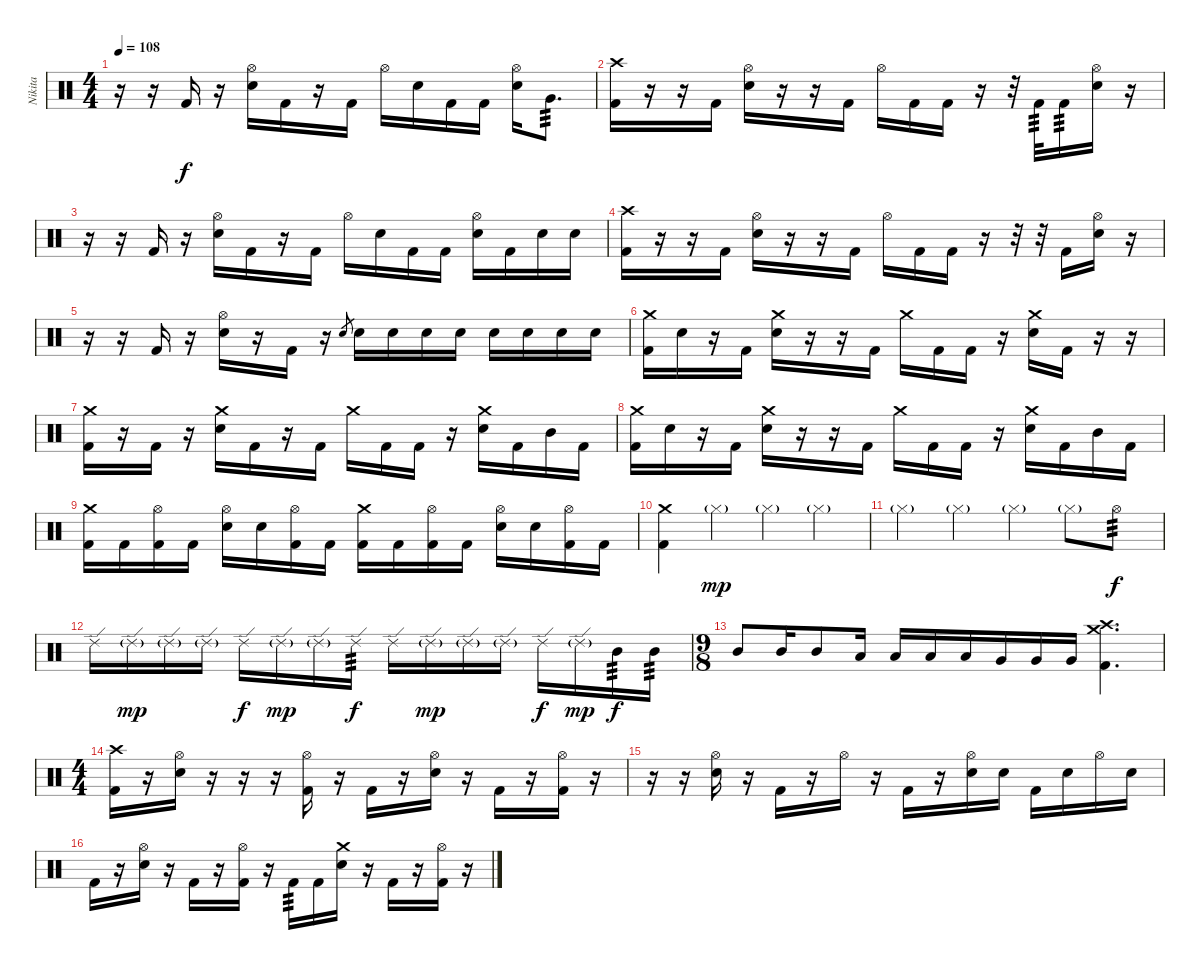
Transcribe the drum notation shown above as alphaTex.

\track ("Nikita" "Nikita") {instrument percussion}
\staff {score}
\articulation defaults
\ts (4 4)
\tempo 108
\clef neutral
\ks c
r.16{dy f} r.16 "Kick (hit) 2".16 r.16 ("Hi-Hat (open)" "Electric Snare (hit)").16 "Kick (hit) 2".16 r.16 "Kick (hit) 2".16 "Hi-Hat (open)".16 "Electric Snare (hit)".16 "Kick (hit) 2".16 "Kick (hit) 2".16 ("Hi-Hat (open)" "Electric Snare (hit)").16 "Very Low Tom (hit)".8{d tp 3} |
("Crash high (hit)" "Kick (hit) 2").16 r.16 r.16 "Kick (hit) 2".16 ("Hi-Hat (open)" "Electric Snare (hit)").16 r.16 r.16 "Kick (hit) 2".16 "Hi-Hat (open)".16 "Kick (hit) 2".16 "Kick (hit) 2".16 r.16 r.32 "Kick (hit) 2".32{tp 3} "Kick (hit) 2".16{tp 3} ("Hi-Hat (open)" "Electric Snare (hit)").16 r.16 |
r.16 r.16 "Kick (hit) 2".16 r.16 ("Hi-Hat (open)" "Electric Snare (hit)").16 "Kick (hit) 2".16 r.16 "Kick (hit) 2".16 "Hi-Hat (open)".16 "Electric Snare (hit)".16 "Kick (hit) 2".16 "Kick (hit) 2".16 ("Hi-Hat (open)" "Electric Snare (hit)").16 "Kick (hit) 2".16 "Electric Snare (hit)".16 "Electric Snare (hit)".16 |
("Crash high (hit)" "Kick (hit) 2").16 r.16 r.16 "Kick (hit) 2".16 ("Hi-Hat (open)" "Electric Snare (hit)").16 r.16 r.16 "Kick (hit) 2".16 "Hi-Hat (open)".16 "Kick (hit) 2".16 "Kick (hit) 2".16 r.16 r.32 r.32 "Kick (hit) 2".16 ("Hi-Hat (open)" "Electric Snare (hit)").16 r.16 |
r.16 r.16 "Kick (hit) 2".16 r.16 ("Hi-Hat (open)" "Electric Snare (hit)").16 r.16 "Kick (hit) 2".16 r.16 "Electric Snare (hit)".8{gr} "Electric Snare (hit)".16 "Electric Snare (hit)".16 "Electric Snare (hit)".16 "Electric Snare (hit)".16 "Electric Snare (hit)".16 "Electric Snare (hit)".16 "Electric Snare (hit)".16 "Electric Snare (hit)".16 |
("Crash medium (hit)" "Kick (hit) 2").16 "Electric Snare (hit)".16 r.16 "Kick (hit) 2".16 ("Crash medium (hit)" "Electric Snare (hit)").16 r.16 r.16 "Kick (hit) 2".16 "Crash medium (hit)".16 "Kick (hit) 2".16 "Kick (hit) 2".16 r.16 ("Crash medium (hit)" "Electric Snare (hit)").16 "Kick (hit) 2".16 r.16 r.16 |
("Crash medium (hit)" "Kick (hit) 2").16 r.16 "Kick (hit) 2".16 r.16 ("Crash medium (hit)" "Electric Snare (hit)").16 "Kick (hit) 2".16 r.16 "Kick (hit) 2".16 "Crash medium (hit)".16 "Kick (hit) 2".16 "Kick (hit) 2".16 r.16 ("Crash medium (hit)" "Electric Snare (hit)").16 "Kick (hit) 2".16 "Mid Tom (hit)".16 "Kick (hit) 2".16 |
("Crash medium (hit)" "Kick (hit) 2").16 "Electric Snare (hit)".16 r.16 "Kick (hit) 2".16 ("Crash medium (hit)" "Electric Snare (hit)").16 r.16 r.16 "Kick (hit) 2".16 "Crash medium (hit)".16 "Kick (hit) 2".16 "Kick (hit) 2".16 r.16 ("Crash medium (hit)" "Electric Snare (hit)").16 "Kick (hit) 2".16 "Mid Tom (hit)".16 "Kick (hit) 2".16 |
("Crash medium (hit)" "Kick (hit) 2").16 "Kick (hit) 2".16 ("Hi-Hat (open)" "Kick (hit) 2").16 "Kick (hit) 2".16 ("Hi-Hat (open)" "Electric Snare (hit)").16 "Electric Snare (hit)".16 ("Hi-Hat (open)" "Kick (hit) 2").16 "Kick (hit) 2".16 ("Crash medium (hit)" "Kick (hit) 2").16 "Kick (hit) 2".16 ("Hi-Hat (open)" "Kick (hit) 2").16 "Kick (hit) 2".16 ("Hi-Hat (open)" "Electric Snare (hit)").16 "Electric Snare (hit)".16 ("Hi-Hat (open)" "Kick (hit) 2").16 "Kick (hit) 2".16 |
("Crash medium (hit)" "Kick (hit) 2").4 "Hi-Hat (closed)"{g}.4{dy mp} "Hi-Hat (closed)"{g}.4 "Hi-Hat (closed)"{g}.4 |
"Hi-Hat (closed)"{g}.4 "Hi-Hat (closed)"{g}.4 "Hi-Hat (closed)"{g}.4 "Hi-Hat (closed)"{g}.8 "Hi-Hat (open)".8{tp 3 dy f} |
"Ride (edge) 2".16 "Ride (edge) 2"{g}.16{dy mp} "Ride (edge) 2"{g}.16 "Ride (edge) 2"{g}.16 "Ride (edge) 2".16{dy f} "Ride (edge) 2"{g}.16{dy mp} "Ride (edge) 2"{g}.16 "Ride (edge) 2".16{tp 3 dy f} "Ride (edge) 2".16 "Ride (edge) 2"{g}.16{dy mp} "Ride (edge) 2"{g}.16 "Ride (edge) 2"{g}.16 "Ride (edge) 2".16{dy f} "Ride (edge) 2"{g}.16{dy mp} "Mid Tom (hit)".16{tp 3 dy f} "Mid Tom (hit)".16{tp 3} |
\ts (9 8)
"Mid Tom (hit)".8 "Mid Tom (hit)".16 "Mid Tom (hit)".8 "Low Tom (hit)".16 "Low Tom (hit)".16 "Low Tom (hit)".16 "Low Tom (hit)".16 "Very Low Tom (hit)".16 "Very Low Tom (hit)".16 "Very Low Tom (hit)".16 ("Crash medium (hit)" "Crash high (hit)" "Kick (hit) 2").4{d} |
\ts (4 4)
("Crash high (hit)" "Kick (hit) 2").16 r.16 ("Hi-Hat (open)" "Electric Snare (hit)").16 r.16 r.16 r.16 ("Hi-Hat (open)" "Kick (hit) 2").16 r.16 "Kick (hit) 2".16 r.16 ("Hi-Hat (open)" "Electric Snare (hit)").16 r.16 "Kick (hit) 2".16 r.16 ("Hi-Hat (open)" "Kick (hit) 2").16 r.16 |
r.16 r.16 ("Hi-Hat (open)" "Electric Snare (hit)").16 r.16 "Kick (hit) 2".16 r.16 "Hi-Hat (open)".16 r.16 "Kick (hit) 2".16 r.16 ("Hi-Hat (open)" "Electric Snare (hit)").16 "Electric Snare (hit)".16 "Kick (hit) 2".16 "Electric Snare (hit)".16 "Hi-Hat (open)".16 "Electric Snare (hit)".16 |
"Kick (hit) 2".16 r.16 ("Hi-Hat (open)" "Electric Snare (hit)").16 r.16 "Kick (hit) 2".16 r.16 ("Hi-Hat (open)" "Kick (hit) 2").16 r.16 "Kick (hit) 2".16{tp 3} "Kick (hit) 2".16 ("Crash medium (hit)" "Electric Snare (hit)").16 r.16 "Kick (hit) 2".16 r.16 ("Hi-Hat (open)" "Kick (hit) 2").16 r.16
